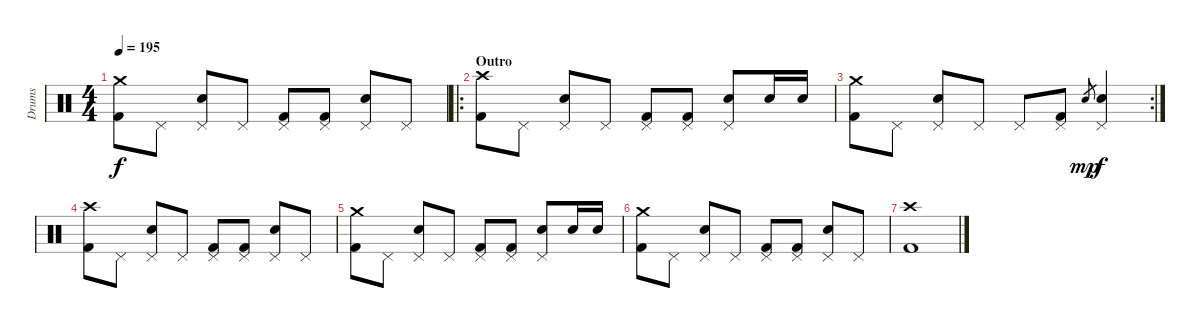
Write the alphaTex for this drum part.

\track ("Drums" "Drums") {instrument percussion}
\staff {score}
\articulation defaults
\ts (4 4)
\tempo 195
\clef neutral
\ks c
("Crash medium (hit)" "Kick (hit) 2").8{dy f} "Pedal Hi-Hat (hit)".8 ("Pedal Hi-Hat (hit)" "Electric Snare (hit)").8 "Pedal Hi-Hat (hit)".8 ("Pedal Hi-Hat (hit)" "Kick (hit) 2").8 ("Pedal Hi-Hat (hit)" "Kick (hit) 2").8 ("Pedal Hi-Hat (hit)" "Electric Snare (hit)").8 "Pedal Hi-Hat (hit)".8 |
\ro
\section ("" "Outro")
("Crash high (hit)" "Kick (hit) 2").8 "Pedal Hi-Hat (hit)".8 ("Pedal Hi-Hat (hit)" "Electric Snare (hit)").8 "Pedal Hi-Hat (hit)".8 ("Pedal Hi-Hat (hit)" "Kick (hit) 2").8 ("Pedal Hi-Hat (hit)" "Kick (hit) 2").8 ("Pedal Hi-Hat (hit)" "Electric Snare (hit)").8 "Electric Snare (hit)".16 "Electric Snare (hit)".16 |
\rc 2
("Crash medium (hit)" "Kick (hit) 2").8 "Pedal Hi-Hat (hit)".8 ("Pedal Hi-Hat (hit)" "Electric Snare (hit)").8 "Pedal Hi-Hat (hit)".8 "Pedal Hi-Hat (hit)".8 ("Pedal Hi-Hat (hit)" "Kick (hit) 2").8 "Electric Snare (hit)".8{gr dy mp} ("Pedal Hi-Hat (hit)" "Electric Snare (hit)").4{dy f} |
("Crash high (hit)" "Kick (hit) 2").8 "Pedal Hi-Hat (hit)".8 ("Pedal Hi-Hat (hit)" "Electric Snare (hit)").8 "Pedal Hi-Hat (hit)".8 ("Pedal Hi-Hat (hit)" "Kick (hit) 2").8 ("Pedal Hi-Hat (hit)" "Kick (hit) 2").8 ("Pedal Hi-Hat (hit)" "Electric Snare (hit)").8 "Pedal Hi-Hat (hit)".8 |
("Crash medium (hit)" "Kick (hit) 2").8 "Pedal Hi-Hat (hit)".8 ("Pedal Hi-Hat (hit)" "Electric Snare (hit)").8 "Pedal Hi-Hat (hit)".8 ("Pedal Hi-Hat (hit)" "Kick (hit) 2").8 ("Pedal Hi-Hat (hit)" "Kick (hit) 2").8 ("Pedal Hi-Hat (hit)" "Electric Snare (hit)").8 "Electric Snare (hit)".16 "Electric Snare (hit)".16 |
("Crash medium (hit)" "Kick (hit) 2").8 "Pedal Hi-Hat (hit)".8 ("Pedal Hi-Hat (hit)" "Electric Snare (hit)").8 "Pedal Hi-Hat (hit)".8 ("Pedal Hi-Hat (hit)" "Kick (hit) 2").8 ("Pedal Hi-Hat (hit)" "Kick (hit) 2").8 ("Pedal Hi-Hat (hit)" "Electric Snare (hit)").8 "Pedal Hi-Hat (hit)".8 |
("Crash high (hit)" "Kick (hit) 2").1
